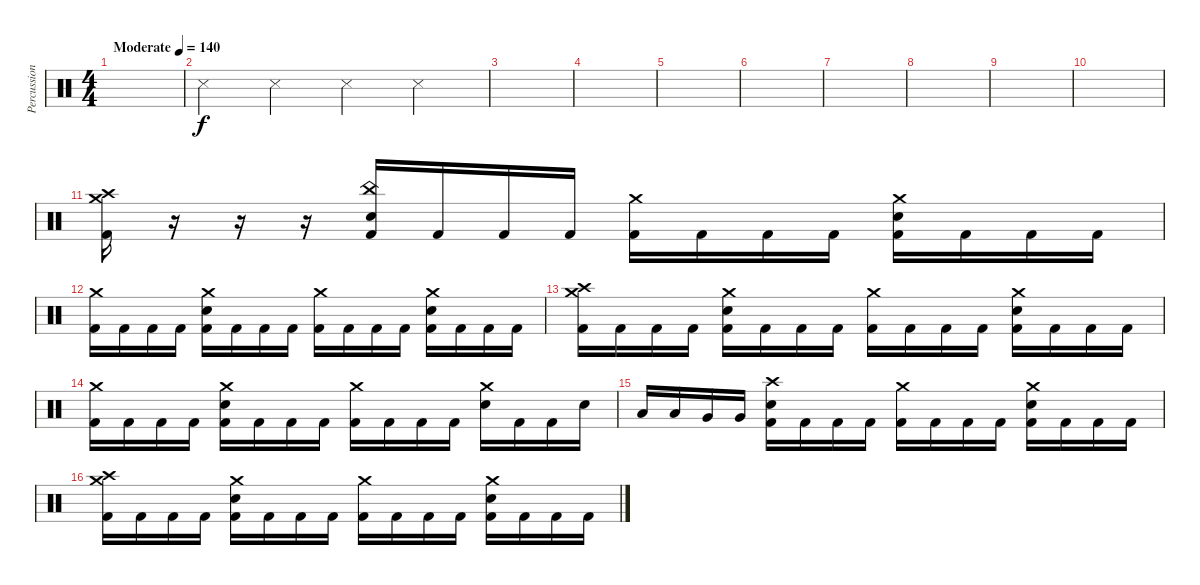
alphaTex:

\track ("Percussioni" "Percussion") {mute instrument percussion}
\staff {score}
\articulation defaults
\ts (4 4)
\tempo (140 "Moderate")
\clef neutral
\ks c
|
"Snare (side stick) 3".4 "Snare (side stick) 3".4 "Snare (side stick) 3".4 "Snare (side stick) 3".4 |
|
|
|
|
|
|
|
|
("Crash high (hit)" "Crash medium (hit)" "Kick (hit) 2").16 r.16 r.16 r.16 ("China (hit)" "Snare (hit) 2" "Kick (hit) 2").16 "Kick (hit) 2".16 "Kick (hit) 2".16 "Kick (hit) 2".16 ("Crash medium (hit)" "Kick (hit) 2").16 "Kick (hit) 2".16 "Kick (hit) 2".16 "Kick (hit) 2".16 ("Crash medium (hit)" "Snare (hit) 2" "Kick (hit) 2").16 "Kick (hit) 2".16 "Kick (hit) 2".16 "Kick (hit) 2".16 |
("Crash medium (hit)" "Kick (hit) 2").16 "Kick (hit) 2".16 "Kick (hit) 2".16 "Kick (hit) 2".16 ("Crash medium (hit)" "Snare (hit) 2" "Kick (hit) 2").16 "Kick (hit) 2".16 "Kick (hit) 2".16 "Kick (hit) 2".16 ("Crash medium (hit)" "Kick (hit) 2").16 "Kick (hit) 2".16 "Kick (hit) 2".16 "Kick (hit) 2".16 ("Crash medium (hit)" "Snare (hit) 2" "Kick (hit) 2").16 "Kick (hit) 2".16 "Kick (hit) 2".16 "Kick (hit) 2".16 |
("Crash high (hit)" "Crash medium (hit)" "Kick (hit) 2").16 "Kick (hit) 2".16 "Kick (hit) 2".16 "Kick (hit) 2".16 ("Crash medium (hit)" "Snare (hit) 2" "Kick (hit) 2").16 "Kick (hit) 2".16 "Kick (hit) 2".16 "Kick (hit) 2".16 ("Crash medium (hit)" "Kick (hit) 2").16 "Kick (hit) 2".16 "Kick (hit) 2".16 "Kick (hit) 2".16 ("Crash medium (hit)" "Snare (hit) 2" "Kick (hit) 2").16 "Kick (hit) 2".16 "Kick (hit) 2".16 "Kick (hit) 2".16 |
("Crash medium (hit)" "Kick (hit) 2").16 "Kick (hit) 2".16 "Kick (hit) 2".16 "Kick (hit) 2".16 ("Crash medium (hit)" "Snare (hit) 2" "Kick (hit) 2").16 "Kick (hit) 2".16 "Kick (hit) 2".16 "Kick (hit) 2".16 ("Crash medium (hit)" "Kick (hit) 2").16 "Kick (hit) 2".16 "Kick (hit) 2".16 "Kick (hit) 2".16 ("Crash medium (hit)" "Snare (hit) 2").16 "Kick (hit) 2".16 "Kick (hit) 2".16 "Snare (hit) 2".16 |
"Low Tom (hit)".16 "Low Tom (hit)".16 "Very Low Tom (hit)".16 "Very Low Tom (hit)".16 ("Crash high (hit)" "Snare (hit) 2" "Kick (hit) 2").16 "Kick (hit) 2".16 "Kick (hit) 2".16 "Kick (hit) 2".16 ("Crash medium (hit)" "Kick (hit) 2").16 "Kick (hit) 2".16 "Kick (hit) 2".16 "Kick (hit) 2".16 ("Crash medium (hit)" "Snare (hit) 2" "Kick (hit) 2").16 "Kick (hit) 2".16 "Kick (hit) 2".16 "Kick (hit) 2".16 |
("Crash high (hit)" "Crash medium (hit)" "Kick (hit) 2").16 "Kick (hit) 2".16 "Kick (hit) 2".16 "Kick (hit) 2".16 ("Crash medium (hit)" "Snare (hit) 2" "Kick (hit) 2").16 "Kick (hit) 2".16 "Kick (hit) 2".16 "Kick (hit) 2".16 ("Crash medium (hit)" "Kick (hit) 2").16 "Kick (hit) 2".16 "Kick (hit) 2".16 "Kick (hit) 2".16 ("Crash medium (hit)" "Snare (hit) 2" "Kick (hit) 2").16 "Kick (hit) 2".16 "Kick (hit) 2".16 "Kick (hit) 2".16
